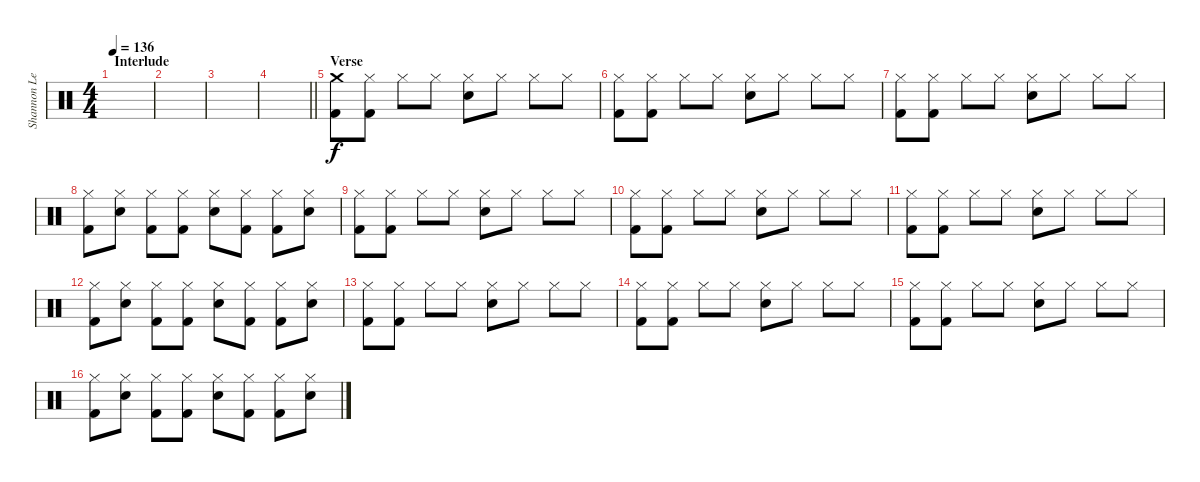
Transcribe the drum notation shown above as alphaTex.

\track ("Shannon Leto [Drums]" "Shannon Le") {instrument percussion}
\staff {score}
\articulation defaults
\ts (4 4)
\section ("" "Interlude")
\tempo 136
\clef neutral
\ks c
|
|
|
\barLineRight lightlight
|
\section ("" "Verse")
("Crash medium (hit)" "Kick (hit) 2").8 ("Hi-Hat (closed)" "Kick (hit) 2").8 "Hi-Hat (closed)".8 "Hi-Hat (closed)".8 ("Hi-Hat (closed)" "Electric Snare (hit)").8 "Hi-Hat (closed)".8 "Hi-Hat (closed)".8 "Hi-Hat (closed)".8 |
("Hi-Hat (closed)" "Kick (hit) 2").8 ("Hi-Hat (closed)" "Kick (hit) 2").8 "Hi-Hat (closed)".8 "Hi-Hat (closed)".8 ("Hi-Hat (closed)" "Electric Snare (hit)").8 "Hi-Hat (closed)".8 "Hi-Hat (closed)".8 "Hi-Hat (closed)".8 |
("Hi-Hat (closed)" "Kick (hit) 2").8 ("Hi-Hat (closed)" "Kick (hit) 2").8 "Hi-Hat (closed)".8 "Hi-Hat (closed)".8 ("Hi-Hat (closed)" "Electric Snare (hit)").8 "Hi-Hat (closed)".8 "Hi-Hat (closed)".8 "Hi-Hat (closed)".8 |
("Hi-Hat (closed)" "Kick (hit) 2").8 ("Hi-Hat (closed)" "Electric Snare (hit)").8 ("Hi-Hat (closed)" "Kick (hit) 2").8 ("Hi-Hat (closed)" "Kick (hit) 2").8 ("Hi-Hat (closed)" "Electric Snare (hit)").8 ("Hi-Hat (closed)" "Kick (hit) 2").8 ("Hi-Hat (closed)" "Kick (hit) 2").8 ("Hi-Hat (closed)" "Electric Snare (hit)").8 |
("Hi-Hat (closed)" "Kick (hit) 2").8 ("Hi-Hat (closed)" "Kick (hit) 2").8 "Hi-Hat (closed)".8 "Hi-Hat (closed)".8 ("Hi-Hat (closed)" "Electric Snare (hit)").8 "Hi-Hat (closed)".8 "Hi-Hat (closed)".8 "Hi-Hat (closed)".8 |
("Hi-Hat (closed)" "Kick (hit) 2").8 ("Hi-Hat (closed)" "Kick (hit) 2").8 "Hi-Hat (closed)".8 "Hi-Hat (closed)".8 ("Hi-Hat (closed)" "Electric Snare (hit)").8 "Hi-Hat (closed)".8 "Hi-Hat (closed)".8 "Hi-Hat (closed)".8 |
("Hi-Hat (closed)" "Kick (hit) 2").8 ("Hi-Hat (closed)" "Kick (hit) 2").8 "Hi-Hat (closed)".8 "Hi-Hat (closed)".8 ("Hi-Hat (closed)" "Electric Snare (hit)").8 "Hi-Hat (closed)".8 "Hi-Hat (closed)".8 "Hi-Hat (closed)".8 |
("Hi-Hat (closed)" "Kick (hit) 2").8 ("Hi-Hat (closed)" "Electric Snare (hit)").8 ("Hi-Hat (closed)" "Kick (hit) 2").8 ("Hi-Hat (closed)" "Kick (hit) 2").8 ("Hi-Hat (closed)" "Electric Snare (hit)").8 ("Hi-Hat (closed)" "Kick (hit) 2").8 ("Hi-Hat (closed)" "Kick (hit) 2").8 ("Hi-Hat (closed)" "Electric Snare (hit)").8 |
("Hi-Hat (closed)" "Kick (hit) 2").8 ("Hi-Hat (closed)" "Kick (hit) 2").8 "Hi-Hat (closed)".8 "Hi-Hat (closed)".8 ("Hi-Hat (closed)" "Electric Snare (hit)").8 "Hi-Hat (closed)".8 "Hi-Hat (closed)".8 "Hi-Hat (closed)".8 |
("Hi-Hat (closed)" "Kick (hit) 2").8 ("Hi-Hat (closed)" "Kick (hit) 2").8 "Hi-Hat (closed)".8 "Hi-Hat (closed)".8 ("Hi-Hat (closed)" "Electric Snare (hit)").8 "Hi-Hat (closed)".8 "Hi-Hat (closed)".8 "Hi-Hat (closed)".8 |
("Hi-Hat (closed)" "Kick (hit) 2").8 ("Hi-Hat (closed)" "Kick (hit) 2").8 "Hi-Hat (closed)".8 "Hi-Hat (closed)".8 ("Hi-Hat (closed)" "Electric Snare (hit)").8 "Hi-Hat (closed)".8 "Hi-Hat (closed)".8 "Hi-Hat (closed)".8 |
("Hi-Hat (closed)" "Kick (hit) 2").8 ("Hi-Hat (closed)" "Electric Snare (hit)").8 ("Hi-Hat (closed)" "Kick (hit) 2").8 ("Hi-Hat (closed)" "Kick (hit) 2").8 ("Hi-Hat (closed)" "Electric Snare (hit)").8 ("Hi-Hat (closed)" "Kick (hit) 2").8 ("Hi-Hat (closed)" "Kick (hit) 2").8 ("Hi-Hat (closed)" "Electric Snare (hit)").8
